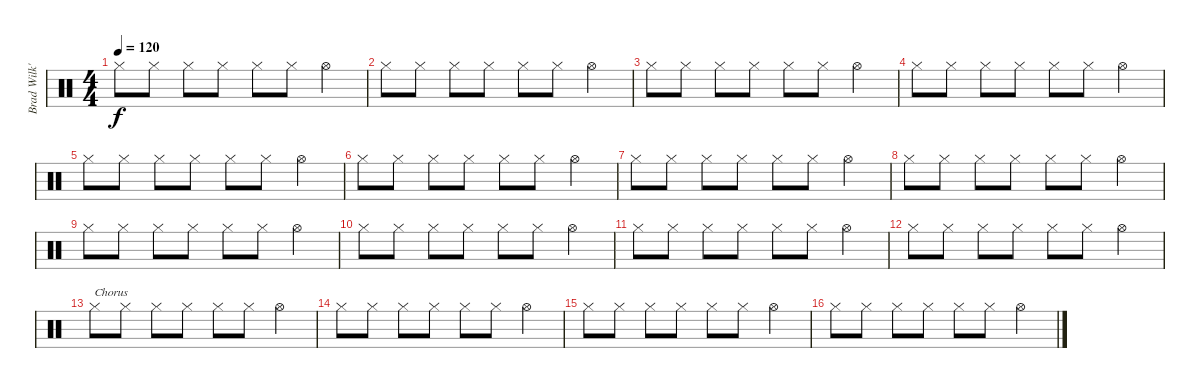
\track ("Brad Wilk's Hi Hat" "Brad Wilk'") {instrument percussion}
\staff {score}
\articulation defaults
\ts (4 4)
\tempo 120
\clef neutral
\ks c "Hi-Hat (closed)".8{dy f} "Hi-Hat (closed)".8 "Hi-Hat (closed)".8 "Hi-Hat (closed)".8 "Hi-Hat (closed)".8 "Hi-Hat (closed)".8 "Hi-Hat (open)".4
|
"Hi-Hat (closed)".8 "Hi-Hat (closed)".8 "Hi-Hat (closed)".8 "Hi-Hat (closed)".8 "Hi-Hat (closed)".8 "Hi-Hat (closed)".8 "Hi-Hat (open)".4 |
"Hi-Hat (closed)".8 "Hi-Hat (closed)".8 "Hi-Hat (closed)".8 "Hi-Hat (closed)".8 "Hi-Hat (closed)".8 "Hi-Hat (closed)".8 "Hi-Hat (open)".4 |
"Hi-Hat (closed)".8 "Hi-Hat (closed)".8 "Hi-Hat (closed)".8 "Hi-Hat (closed)".8 "Hi-Hat (closed)".8 "Hi-Hat (closed)".8 "Hi-Hat (open)".4 |
"Hi-Hat (closed)".8 "Hi-Hat (closed)".8 "Hi-Hat (closed)".8 "Hi-Hat (closed)".8 "Hi-Hat (closed)".8 "Hi-Hat (closed)".8 "Hi-Hat (open)".4 |
"Hi-Hat (closed)".8 "Hi-Hat (closed)".8 "Hi-Hat (closed)".8 "Hi-Hat (closed)".8 "Hi-Hat (closed)".8 "Hi-Hat (closed)".8 "Hi-Hat (open)".4 |
"Hi-Hat (closed)".8 "Hi-Hat (closed)".8 "Hi-Hat (closed)".8 "Hi-Hat (closed)".8 "Hi-Hat (closed)".8 "Hi-Hat (closed)".8 "Hi-Hat (open)".4 |
"Hi-Hat (closed)".8 "Hi-Hat (closed)".8 "Hi-Hat (closed)".8 "Hi-Hat (closed)".8 "Hi-Hat (closed)".8 "Hi-Hat (closed)".8 "Hi-Hat (open)".4 |
"Hi-Hat (closed)".8 "Hi-Hat (closed)".8 "Hi-Hat (closed)".8 "Hi-Hat (closed)".8 "Hi-Hat (closed)".8 "Hi-Hat (closed)".8 "Hi-Hat (open)".4 |
"Hi-Hat (closed)".8 "Hi-Hat (closed)".8 "Hi-Hat (closed)".8 "Hi-Hat (closed)".8 "Hi-Hat (closed)".8 "Hi-Hat (closed)".8 "Hi-Hat (open)".4 |
"Hi-Hat (closed)".8 "Hi-Hat (closed)".8 "Hi-Hat (closed)".8 "Hi-Hat (closed)".8 "Hi-Hat (closed)".8 "Hi-Hat (closed)".8 "Hi-Hat (open)".4 |
"Hi-Hat (closed)".8 "Hi-Hat (closed)".8 "Hi-Hat (closed)".8 "Hi-Hat (closed)".8 "Hi-Hat (closed)".8 "Hi-Hat (closed)".8 "Hi-Hat (open)".4 |
"Hi-Hat (closed)".8{txt "Chorus"} "Hi-Hat (closed)".8 "Hi-Hat (closed)".8 "Hi-Hat (closed)".8 "Hi-Hat (closed)".8 "Hi-Hat (closed)".8 "Hi-Hat (open)".4 |
"Hi-Hat (closed)".8 "Hi-Hat (closed)".8 "Hi-Hat (closed)".8 "Hi-Hat (closed)".8 "Hi-Hat (closed)".8 "Hi-Hat (closed)".8 "Hi-Hat (open)".4 |
"Hi-Hat (closed)".8 "Hi-Hat (closed)".8 "Hi-Hat (closed)".8 "Hi-Hat (closed)".8 "Hi-Hat (closed)".8 "Hi-Hat (closed)".8 "Hi-Hat (open)".4 |
"Hi-Hat (closed)".8 "Hi-Hat (closed)".8 "Hi-Hat (closed)".8 "Hi-Hat (closed)".8 "Hi-Hat (closed)".8 "Hi-Hat (closed)".8 "Hi-Hat (open)".4
